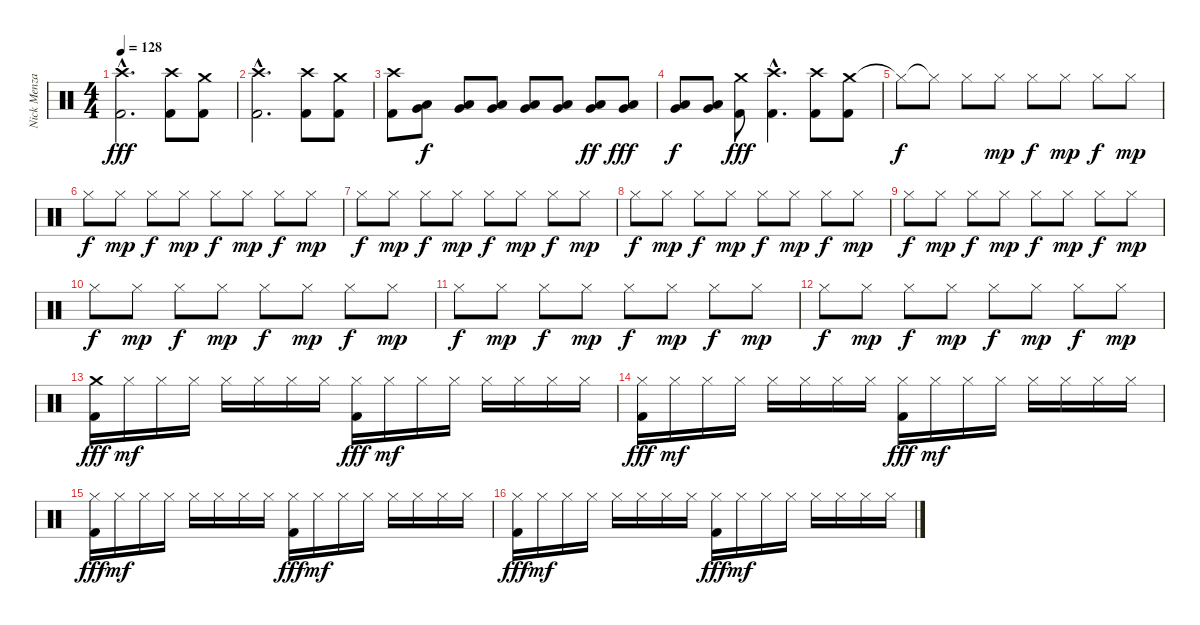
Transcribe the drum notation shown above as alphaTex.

\track ("Nick Menza" "Nick Menza") {instrument percussion}
\staff {score}
\articulation defaults
\ts (4 4)
\tempo 128
\clef neutral
\ks c
("Crash high (hit)"{hac} "Kick (hit) 2"{hac}).2{d dy fff} ("Crash high (hit)" "Kick (hit) 2").8 ("Crash medium (hit)" "Kick (hit) 2").8 |
("Crash high (hit)"{hac} "Kick (hit) 2"{hac}).2{d} ("Crash high (hit)" "Kick (hit) 2").8 ("Crash medium (hit)" "Kick (hit) 2").8 |
("Crash high (hit)" "Kick (hit) 2").8 ("Very Low Tom (hit)" "Low Floor Tom (hit)").8{dy f} ("Very Low Tom (hit)" "Low Floor Tom (hit)").8 ("Very Low Tom (hit)" "Low Floor Tom (hit)").8 ("Very Low Tom (hit)" "Low Floor Tom (hit)").8 ("Very Low Tom (hit)" "Low Floor Tom (hit)").8 ("Very Low Tom (hit)" "Low Floor Tom (hit)").8{dy ff} ("Very Low Tom (hit)" "Low Floor Tom (hit)").8{dy fff} |
("Very Low Tom (hit)" "Low Floor Tom (hit)").8{dy f} ("Very Low Tom (hit)" "Low Floor Tom (hit)").8 ("Crash medium (hit)" "Kick (hit) 2").8{dy fff} ("Crash high (hit)"{hac} "Kick (hit) 2"{hac}).4{d} ("Crash high (hit)" "Kick (hit) 2").8 ("Crash medium (hit)" "Kick (hit) 2").8 |
"Hi-Hat (closed)"{t}.8{dy f} "Hi-Hat (closed)"{t}.8 "Hi-Hat (closed)".8 "Hi-Hat (closed)".8{dy mp} "Hi-Hat (closed)".8{dy f} "Hi-Hat (closed)".8{dy mp} "Hi-Hat (closed)".8{dy f} "Hi-Hat (closed)".8{dy mp} |
"Hi-Hat (closed)".8{dy f} "Hi-Hat (closed)".8{dy mp} "Hi-Hat (closed)".8{dy f} "Hi-Hat (closed)".8{dy mp} "Hi-Hat (closed)".8{dy f} "Hi-Hat (closed)".8{dy mp} "Hi-Hat (closed)".8{dy f} "Hi-Hat (closed)".8{dy mp} |
"Hi-Hat (closed)".8{dy f} "Hi-Hat (closed)".8{dy mp} "Hi-Hat (closed)".8{dy f} "Hi-Hat (closed)".8{dy mp} "Hi-Hat (closed)".8{dy f} "Hi-Hat (closed)".8{dy mp} "Hi-Hat (closed)".8{dy f} "Hi-Hat (closed)".8{dy mp} |
"Hi-Hat (closed)".8{dy f} "Hi-Hat (closed)".8{dy mp} "Hi-Hat (closed)".8{dy f} "Hi-Hat (closed)".8{dy mp} "Hi-Hat (closed)".8{dy f} "Hi-Hat (closed)".8{dy mp} "Hi-Hat (closed)".8{dy f} "Hi-Hat (closed)".8{dy mp} |
"Hi-Hat (closed)".8{dy f} "Hi-Hat (closed)".8{dy mp} "Hi-Hat (closed)".8{dy f} "Hi-Hat (closed)".8{dy mp} "Hi-Hat (closed)".8{dy f} "Hi-Hat (closed)".8{dy mp} "Hi-Hat (closed)".8{dy f} "Hi-Hat (closed)".8{dy mp} |
"Hi-Hat (closed)".8{dy f} "Hi-Hat (closed)".8{dy mp} "Hi-Hat (closed)".8{dy f} "Hi-Hat (closed)".8{dy mp} "Hi-Hat (closed)".8{dy f} "Hi-Hat (closed)".8{dy mp} "Hi-Hat (closed)".8{dy f} "Hi-Hat (closed)".8{dy mp} |
"Hi-Hat (closed)".8{dy f} "Hi-Hat (closed)".8{dy mp} "Hi-Hat (closed)".8{dy f} "Hi-Hat (closed)".8{dy mp} "Hi-Hat (closed)".8{dy f} "Hi-Hat (closed)".8{dy mp} "Hi-Hat (closed)".8{dy f} "Hi-Hat (closed)".8{dy mp} |
"Hi-Hat (closed)".8{dy f} "Hi-Hat (closed)".8{dy mp} "Hi-Hat (closed)".8{dy f} "Hi-Hat (closed)".8{dy mp} "Hi-Hat (closed)".8{dy f} "Hi-Hat (closed)".8{dy mp} "Hi-Hat (closed)".8{dy f} "Hi-Hat (closed)".8{dy mp} |
("Crash medium (hit)" "Kick (hit) 2").16{dy fff} "Hi-Hat (closed)".16{dy mf} "Hi-Hat (closed)".16 "Hi-Hat (closed)".16 "Hi-Hat (closed)".16 "Hi-Hat (closed)".16 "Hi-Hat (closed)".16 "Hi-Hat (closed)".16 ("Hi-Hat (closed)" "Kick (hit) 2").16{dy fff} "Hi-Hat (closed)".16{dy mf} "Hi-Hat (closed)".16 "Hi-Hat (closed)".16 "Hi-Hat (closed)".16 "Hi-Hat (closed)".16 "Hi-Hat (closed)".16 "Hi-Hat (closed)".16 |
("Hi-Hat (closed)" "Kick (hit) 2").16{dy fff} "Hi-Hat (closed)".16{dy mf} "Hi-Hat (closed)".16 "Hi-Hat (closed)".16 "Hi-Hat (closed)".16 "Hi-Hat (closed)".16 "Hi-Hat (closed)".16 "Hi-Hat (closed)".16 ("Hi-Hat (closed)" "Kick (hit) 2").16{dy fff} "Hi-Hat (closed)".16{dy mf} "Hi-Hat (closed)".16 "Hi-Hat (closed)".16 "Hi-Hat (closed)".16 "Hi-Hat (closed)".16 "Hi-Hat (closed)".16 "Hi-Hat (closed)".16 |
("Hi-Hat (closed)" "Kick (hit) 2").16{dy fff} "Hi-Hat (closed)".16{dy mf} "Hi-Hat (closed)".16 "Hi-Hat (closed)".16 "Hi-Hat (closed)".16 "Hi-Hat (closed)".16 "Hi-Hat (closed)".16 "Hi-Hat (closed)".16 ("Hi-Hat (closed)" "Kick (hit) 2").16{dy fff} "Hi-Hat (closed)".16{dy mf} "Hi-Hat (closed)".16 "Hi-Hat (closed)".16 "Hi-Hat (closed)".16 "Hi-Hat (closed)".16 "Hi-Hat (closed)".16 "Hi-Hat (closed)".16 |
("Hi-Hat (closed)" "Kick (hit) 2").16{dy fff} "Hi-Hat (closed)".16{dy mf} "Hi-Hat (closed)".16 "Hi-Hat (closed)".16 "Hi-Hat (closed)".16 "Hi-Hat (closed)".16 "Hi-Hat (closed)".16 "Hi-Hat (closed)".16 ("Hi-Hat (closed)" "Kick (hit) 2").16{dy fff} "Hi-Hat (closed)".16{dy mf} "Hi-Hat (closed)".16 "Hi-Hat (closed)".16 "Hi-Hat (closed)".16 "Hi-Hat (closed)".16 "Hi-Hat (closed)".16 "Hi-Hat (closed)".16
